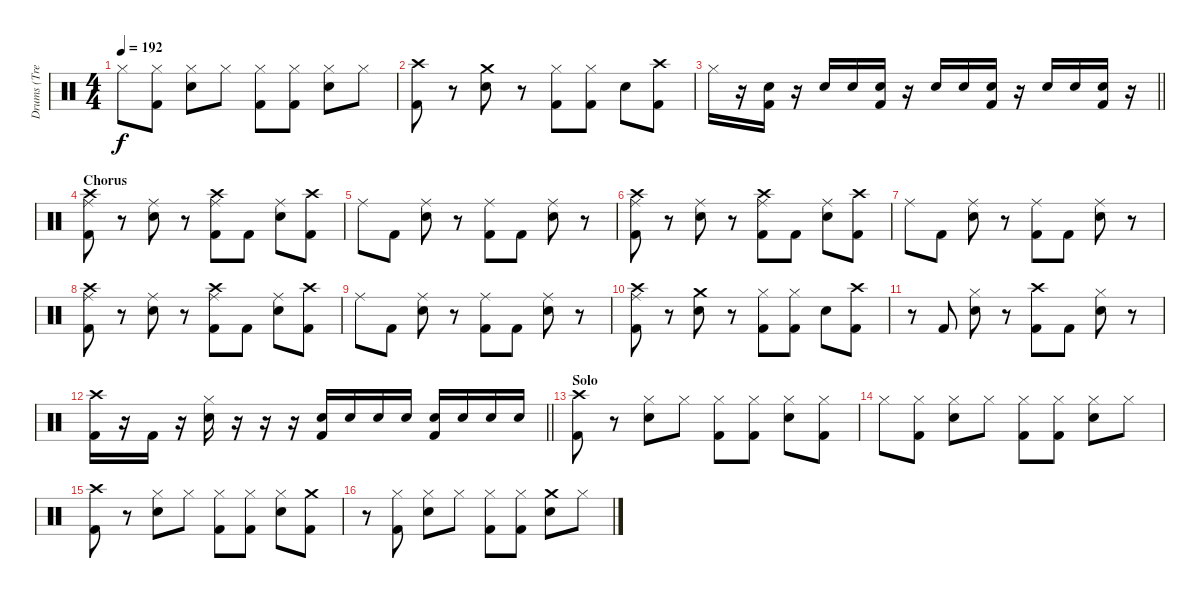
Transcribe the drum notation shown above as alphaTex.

\track ("Drums (Tre Cool)" "Drums (Tre") {instrument percussion}
\staff {score}
\articulation defaults
\ts (4 4)
\tempo 192
\clef neutral
\ks c "Hi-Hat (closed)".8{dy f}
("Hi-Hat (closed)" "Kick (hit) 2").8 ("Hi-Hat (closed)" "Snare (hit) 2").8 "Hi-Hat (closed)".8 ("Hi-Hat (closed)" "Kick (hit) 2").8 ("Hi-Hat (closed)" "Kick (hit) 2").8 ("Hi-Hat (closed)" "Snare (hit) 2").8 "Hi-Hat (closed)".8 |
("Crash high (hit)" "Kick (hit) 2").8 r.8 ("Crash medium (hit)" "Snare (hit) 2").8 r.8 ("Hi-Hat (closed)" "Kick (hit) 2").8 ("Hi-Hat (closed)" "Kick (hit) 2").8 "Snare (hit) 2".8 ("Crash high (hit)" "Kick (hit) 2").8 |
\barLineRight lightlight "Hi-Hat (closed)".16
r.16 ("Snare (hit) 2" "Kick (hit) 2").16 r.16 "Snare (hit) 2".16 "Snare (hit) 2".16 ("Snare (hit) 2" "Kick (hit) 2").16 r.16 "Snare (hit) 2".16 "Snare (hit) 2".16 ("Snare (hit) 2" "Kick (hit) 2").16 r.16 "Snare (hit) 2".16 "Snare (hit) 2".16 ("Snare (hit) 2" "Kick (hit) 2").16 r.16 |
\section ("" "Chorus")
("Crash high (hit)" "Ride (middle)" "Kick (hit) 2").8 r.8 ("Ride (middle)" "Snare (hit) 2").8 r.8 ("Crash high (hit)" "Ride (middle)" "Kick (hit) 2").8 "Kick (hit) 2".8 ("Ride (middle)" "Snare (hit) 2").8 ("Crash high (hit)" "Kick (hit) 2").8 |
"Ride (middle)".8 "Kick (hit) 2".8 ("Ride (middle)" "Snare (hit) 2").8 r.8 ("Ride (middle)" "Kick (hit) 2").8 "Kick (hit) 2".8 ("Ride (middle)" "Snare (hit) 2").8 r.8 |
("Crash high (hit)" "Ride (middle)" "Kick (hit) 2").8 r.8 ("Ride (middle)" "Snare (hit) 2").8 r.8 ("Crash high (hit)" "Ride (middle)" "Kick (hit) 2").8 "Kick (hit) 2".8 ("Ride (middle)" "Snare (hit) 2").8 ("Crash high (hit)" "Kick (hit) 2").8 |
"Ride (middle)".8 "Kick (hit) 2".8 ("Ride (middle)" "Snare (hit) 2").8 r.8 ("Ride (middle)" "Kick (hit) 2").8 "Kick (hit) 2".8 ("Ride (middle)" "Snare (hit) 2").8 r.8 |
("Crash high (hit)" "Ride (middle)" "Kick (hit) 2").8 r.8 ("Ride (middle)" "Snare (hit) 2").8 r.8 ("Crash high (hit)" "Ride (middle)" "Kick (hit) 2").8 "Kick (hit) 2".8 ("Ride (middle)" "Snare (hit) 2").8 ("Crash high (hit)" "Kick (hit) 2").8 |
"Ride (middle)".8 "Kick (hit) 2".8 ("Ride (middle)" "Snare (hit) 2").8 r.8 ("Ride (middle)" "Kick (hit) 2").8 "Kick (hit) 2".8 ("Ride (middle)" "Snare (hit) 2").8 r.8 |
("Crash high (hit)" "Ride (middle)" "Kick (hit) 2").8 r.8 ("Crash medium (hit)" "Snare (hit) 2").8 r.8 ("Hi-Hat (closed)" "Kick (hit) 2").8 ("Hi-Hat (closed)" "Kick (hit) 2").8 "Snare (hit) 2".8 ("Crash high (hit)" "Kick (hit) 2").8 |
r.8 "Kick (hit) 2".8 ("Hi-Hat (closed)" "Snare (hit) 2").8 r.8 ("Crash high (hit)" "Kick (hit) 2").8 "Kick (hit) 2".8 ("Hi-Hat (closed)" "Snare (hit) 2").8 r.8 |
\barLineRight lightlight
("Crash high (hit)" "Kick (hit) 2").16 r.16 "Kick (hit) 2".16 r.16 ("Hi-Hat (closed)" "Snare (hit) 2").16 r.16 r.16 r.16 ("Snare (hit) 2" "Kick (hit) 2").16 "Snare (hit) 2".16 "Snare (hit) 2".16 "Snare (hit) 2".16 ("Snare (hit) 2" "Kick (hit) 2").16 "Snare (hit) 2".16 "Snare (hit) 2".16 "Snare (hit) 2".16 |
\section ("" "Solo")
("Crash high (hit)" "Kick (hit) 2").8 r.8 ("Hi-Hat (closed)" "Snare (hit) 2").8 "Hi-Hat (closed)".8 ("Hi-Hat (closed)" "Kick (hit) 2").8 ("Hi-Hat (closed)" "Kick (hit) 2").8 ("Hi-Hat (closed)" "Snare (hit) 2").8 ("Hi-Hat (closed)" "Kick (hit) 2").8 |
"Hi-Hat (closed)".8 ("Hi-Hat (closed)" "Kick (hit) 2").8 ("Hi-Hat (closed)" "Snare (hit) 2").8 "Hi-Hat (closed)".8 ("Hi-Hat (closed)" "Kick (hit) 2").8 ("Hi-Hat (closed)" "Kick (hit) 2").8 ("Hi-Hat (closed)" "Snare (hit) 2").8 "Hi-Hat (closed)".8 |
("Crash high (hit)" "Kick (hit) 2").8 r.8 ("Hi-Hat (closed)" "Snare (hit) 2").8 "Hi-Hat (closed)".8 ("Hi-Hat (closed)" "Kick (hit) 2").8 ("Hi-Hat (closed)" "Kick (hit) 2").8 ("Hi-Hat (closed)" "Snare (hit) 2").8 ("Crash medium (hit)" "Kick (hit) 2").8 |
r.8 ("Hi-Hat (closed)" "Kick (hit) 2").8 ("Hi-Hat (closed)" "Snare (hit) 2").8 "Hi-Hat (closed)".8 ("Hi-Hat (closed)" "Kick (hit) 2").8 ("Hi-Hat (closed)" "Kick (hit) 2").8 ("Crash medium (hit)" "Snare (hit) 2").8 "Hi-Hat (closed)".8
